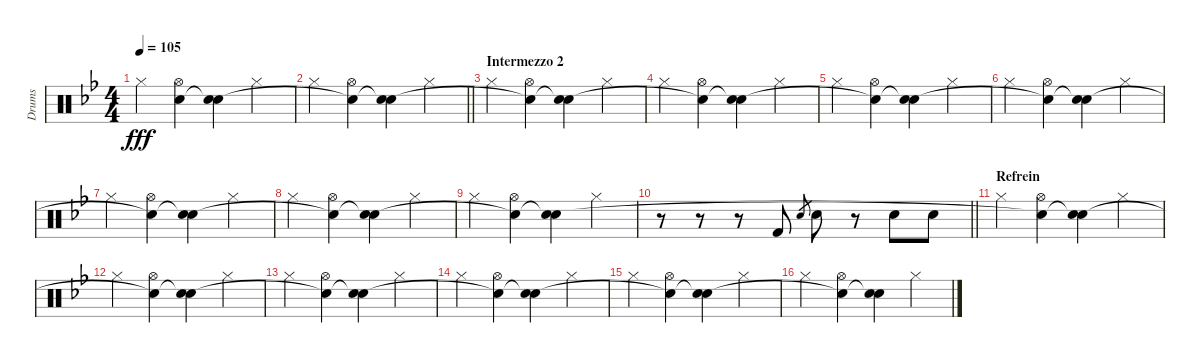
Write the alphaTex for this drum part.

\track ("Drums" "Drums") {instrument percussion}
\staff {score}
\articulation defaults
\ts (4 4)
\tempo 105
\clef neutral
\ks bb "Hi-Hat (closed)".4{dy fff}
("Hi-Hat (open)" "Snare (hit)"{t}).4 ("Snare (hit) 2" "Snare (hit)"{t}).4 "Hi-Hat (closed)".4 |
\barLineRight lightlight "Hi-Hat (closed)".4
("Hi-Hat (open)" "Snare (hit)"{t}).4 ("Snare (hit) 2" "Snare (hit)"{t}).4 "Hi-Hat (closed)".4 |
\section ("" "Intermezzo 2")
"Hi-Hat (closed)".4 ("Hi-Hat (open)" "Snare (hit)"{t}).4 ("Snare (hit) 2" "Snare (hit)"{t}).4 "Hi-Hat (closed)".4 |
"Hi-Hat (closed)".4 ("Hi-Hat (open)" "Snare (hit)"{t}).4 ("Snare (hit) 2" "Snare (hit)"{t}).4 "Hi-Hat (closed)".4 |
"Hi-Hat (closed)".4 ("Hi-Hat (open)" "Snare (hit)"{t}).4 ("Snare (hit) 2" "Snare (hit)"{t}).4 "Hi-Hat (closed)".4 |
"Hi-Hat (closed)".4 ("Hi-Hat (open)" "Snare (hit)"{t}).4 ("Snare (hit) 2" "Snare (hit)"{t}).4 "Hi-Hat (closed)".4 |
"Hi-Hat (closed)".4 ("Hi-Hat (open)" "Snare (hit)"{t}).4 ("Snare (hit) 2" "Snare (hit)"{t}).4 "Hi-Hat (closed)".4 |
"Hi-Hat (closed)".4 ("Hi-Hat (open)" "Snare (hit)"{t}).4 ("Snare (hit) 2" "Snare (hit)"{t}).4 "Hi-Hat (closed)".4 |
"Hi-Hat (closed)".4 ("Hi-Hat (open)" "Snare (hit)"{t}).4 ("Snare (hit) 2" "Snare (hit)"{t}).4 "Hi-Hat (closed)".4 |
\barLineRight lightlight
r.8 r.8 r.8 "Kick (hit) 2".8 "Snare (hit) 2".8{gr} "Snare (hit) 2".8 r.8 "Snare (hit) 2".8 "Snare (hit) 2".8 |
\section ("" "Refrein")
"Hi-Hat (closed)".4 ("Hi-Hat (open)" "Snare (hit)"{t}).4 ("Snare (hit) 2" "Snare (hit)"{t}).4 "Hi-Hat (closed)".4 |
"Hi-Hat (closed)".4 ("Hi-Hat (open)" "Snare (hit)"{t}).4 ("Snare (hit) 2" "Snare (hit)"{t}).4 "Hi-Hat (closed)".4 |
"Hi-Hat (closed)".4 ("Hi-Hat (open)" "Snare (hit)"{t}).4 ("Snare (hit) 2" "Snare (hit)"{t}).4 "Hi-Hat (closed)".4 |
"Hi-Hat (closed)".4 ("Hi-Hat (open)" "Snare (hit)"{t}).4 ("Snare (hit) 2" "Snare (hit)"{t}).4 "Hi-Hat (closed)".4 |
"Hi-Hat (closed)".4 ("Hi-Hat (open)" "Snare (hit)"{t}).4 ("Snare (hit) 2" "Snare (hit)"{t}).4 "Hi-Hat (closed)".4 |
"Hi-Hat (closed)".4 ("Hi-Hat (open)" "Snare (hit)"{t}).4 ("Snare (hit) 2" "Snare (hit)"{t}).4 "Hi-Hat (closed)".4
